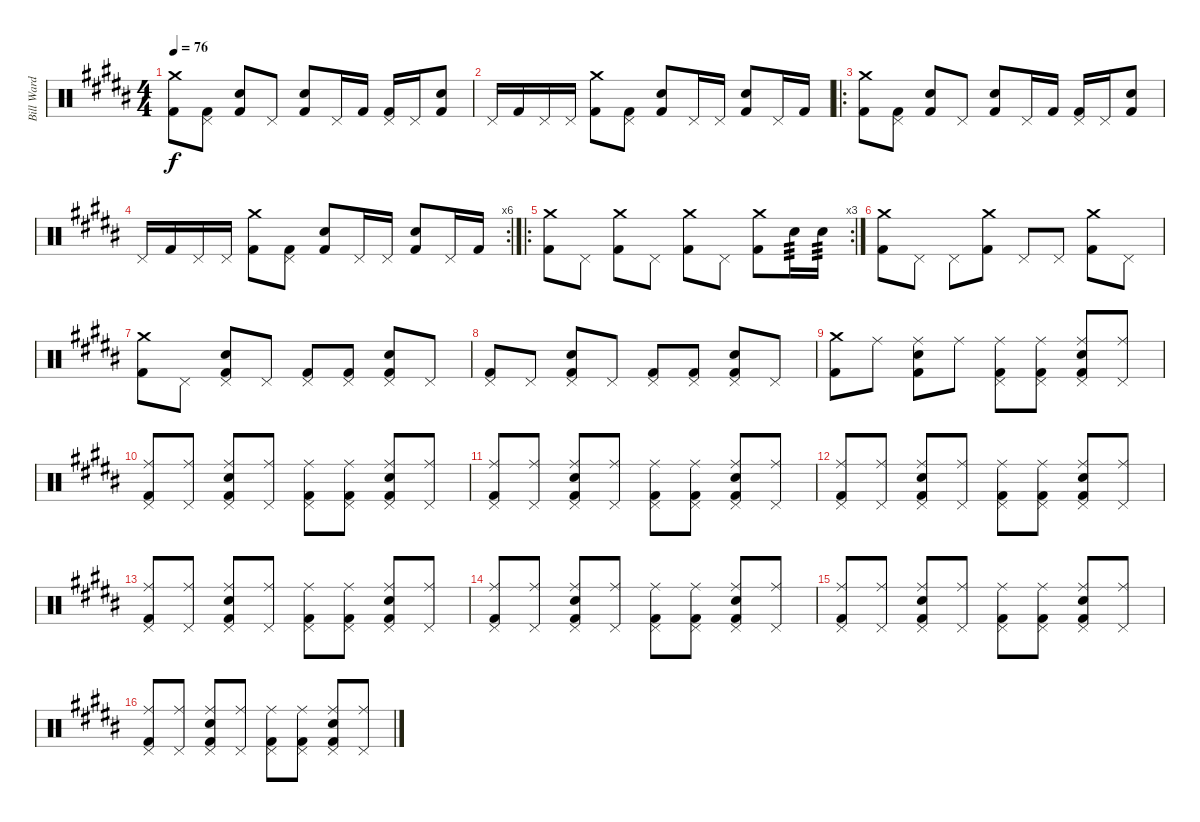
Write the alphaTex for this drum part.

\track ("Bill Ward" "Bill Ward") {instrument percussion}
\staff {score}
\articulation defaults
\ts (4 4)
\tempo 76
\clef neutral
\ks b
("Crash medium (hit)" "Kick (hit) 2").8{dy f} ("Pedal Hi-Hat (hit)" "Kick (hit) 2").8 ("Snare (hit) 2" "Kick (hit) 2").8 "Pedal Hi-Hat (hit)".8 ("Snare (hit) 2" "Kick (hit) 2").8 "Pedal Hi-Hat (hit)".16 "Kick (hit) 2".16 ("Pedal Hi-Hat (hit)" "Kick (hit) 2").16 "Pedal Hi-Hat (hit)".16 ("Snare (hit) 2" "Kick (hit) 2").8 |
"Pedal Hi-Hat (hit)".16 "Kick (hit) 2".16 "Pedal Hi-Hat (hit)".16 "Pedal Hi-Hat (hit)".16 ("Crash medium (hit)" "Kick (hit) 2").8 ("Pedal Hi-Hat (hit)" "Kick (hit) 2").8 ("Snare (hit) 2" "Kick (hit) 2").8 "Pedal Hi-Hat (hit)".16 "Pedal Hi-Hat (hit)".16 ("Snare (hit) 2" "Kick (hit) 2").8 "Pedal Hi-Hat (hit)".16 "Kick (hit) 2".16 |
\ro
("Crash medium (hit)" "Kick (hit) 2").8 ("Pedal Hi-Hat (hit)" "Kick (hit) 2").8 ("Snare (hit) 2" "Kick (hit) 2").8 "Pedal Hi-Hat (hit)".8 ("Snare (hit) 2" "Kick (hit) 2").8 "Pedal Hi-Hat (hit)".16 "Kick (hit) 2".16 ("Pedal Hi-Hat (hit)" "Kick (hit) 2").16 "Pedal Hi-Hat (hit)".16 ("Snare (hit) 2" "Kick (hit) 2").8 |
\rc 6 "Pedal Hi-Hat (hit)".16 "Kick (hit) 2".16 "Pedal Hi-Hat (hit)".16 "Pedal Hi-Hat (hit)".16
("Crash medium (hit)" "Kick (hit) 2").8 ("Pedal Hi-Hat (hit)" "Kick (hit) 2").8 ("Snare (hit) 2" "Kick (hit) 2").8 "Pedal Hi-Hat (hit)".16 "Pedal Hi-Hat (hit)".16 ("Snare (hit) 2" "Kick (hit) 2").8 "Pedal Hi-Hat (hit)".16 "Kick (hit) 2".16 |
\ro
\rc 3
("Crash medium (hit)" "Kick (hit) 2").8 "Pedal Hi-Hat (hit)".8 ("Crash medium (hit)" "Kick (hit) 2").8 "Pedal Hi-Hat (hit)".8 ("Crash medium (hit)" "Kick (hit) 2").8 "Pedal Hi-Hat (hit)".8 ("Crash medium (hit)" "Kick (hit) 2").8 "Snare (hit) 2".16{tp 3} "Snare (hit) 2".16{tp 3} |
("Crash medium (hit)" "Kick (hit) 2").8 "Pedal Hi-Hat (hit)".8 "Pedal Hi-Hat (hit)".8 ("Crash medium (hit)" "Kick (hit) 2").8 "Pedal Hi-Hat (hit)".8 "Pedal Hi-Hat (hit)".8 ("Crash medium (hit)" "Kick (hit) 2").8 "Pedal Hi-Hat (hit)".8 |
("Crash medium (hit)" "Kick (hit) 2").8 "Pedal Hi-Hat (hit)".8 ("Pedal Hi-Hat (hit)" "Snare (hit) 2" "Kick (hit) 2").8 "Pedal Hi-Hat (hit)".8 ("Pedal Hi-Hat (hit)" "Kick (hit) 2").8 ("Pedal Hi-Hat (hit)" "Kick (hit) 2").8 ("Pedal Hi-Hat (hit)" "Snare (hit) 2" "Kick (hit) 2").8 "Pedal Hi-Hat (hit)".8 |
("Pedal Hi-Hat (hit)" "Kick (hit) 2").8 "Pedal Hi-Hat (hit)".8 ("Pedal Hi-Hat (hit)" "Snare (hit) 2" "Kick (hit) 2").8 "Pedal Hi-Hat (hit)".8 ("Pedal Hi-Hat (hit)" "Kick (hit) 2").8 ("Pedal Hi-Hat (hit)" "Kick (hit) 2").8 ("Pedal Hi-Hat (hit)" "Snare (hit) 2" "Kick (hit) 2").8 "Pedal Hi-Hat (hit)".8 |
("Crash medium (hit)" "Kick (hit) 2").8 "Ride (middle)".8 ("Ride (middle)" "Snare (hit) 2" "Kick (hit) 2").8 "Ride (middle)".8 ("Ride (middle)" "Pedal Hi-Hat (hit)" "Kick (hit) 2").8 ("Ride (middle)" "Pedal Hi-Hat (hit)" "Kick (hit) 2").8 ("Ride (middle)" "Pedal Hi-Hat (hit)" "Snare (hit) 2" "Kick (hit) 2").8 ("Ride (middle)" "Pedal Hi-Hat (hit)").8 |
("Ride (middle)" "Pedal Hi-Hat (hit)" "Kick (hit) 2").8 ("Ride (middle)" "Pedal Hi-Hat (hit)").8 ("Ride (middle)" "Pedal Hi-Hat (hit)" "Snare (hit) 2" "Kick (hit) 2").8 ("Ride (middle)" "Pedal Hi-Hat (hit)").8 ("Ride (middle)" "Pedal Hi-Hat (hit)" "Kick (hit) 2").8 ("Ride (middle)" "Pedal Hi-Hat (hit)" "Kick (hit) 2").8 ("Ride (middle)" "Pedal Hi-Hat (hit)" "Snare (hit) 2" "Kick (hit) 2").8 ("Ride (middle)" "Pedal Hi-Hat (hit)").8 |
("Ride (middle)" "Pedal Hi-Hat (hit)" "Kick (hit) 2").8 ("Ride (middle)" "Pedal Hi-Hat (hit)").8 ("Ride (middle)" "Pedal Hi-Hat (hit)" "Snare (hit) 2" "Kick (hit) 2").8 ("Ride (middle)" "Pedal Hi-Hat (hit)").8 ("Ride (middle)" "Pedal Hi-Hat (hit)" "Kick (hit) 2").8 ("Ride (middle)" "Pedal Hi-Hat (hit)" "Kick (hit) 2").8 ("Ride (middle)" "Pedal Hi-Hat (hit)" "Snare (hit) 2" "Kick (hit) 2").8 ("Ride (middle)" "Pedal Hi-Hat (hit)").8 |
("Ride (middle)" "Pedal Hi-Hat (hit)" "Kick (hit) 2").8 ("Ride (middle)" "Pedal Hi-Hat (hit)").8 ("Ride (middle)" "Pedal Hi-Hat (hit)" "Snare (hit) 2" "Kick (hit) 2").8 ("Ride (middle)" "Pedal Hi-Hat (hit)").8 ("Ride (middle)" "Pedal Hi-Hat (hit)" "Kick (hit) 2").8 ("Ride (middle)" "Pedal Hi-Hat (hit)" "Kick (hit) 2").8 ("Ride (middle)" "Pedal Hi-Hat (hit)" "Snare (hit) 2" "Kick (hit) 2").8 ("Ride (middle)" "Pedal Hi-Hat (hit)").8 |
("Ride (middle)" "Pedal Hi-Hat (hit)" "Kick (hit) 2").8 ("Ride (middle)" "Pedal Hi-Hat (hit)").8 ("Ride (middle)" "Pedal Hi-Hat (hit)" "Snare (hit) 2" "Kick (hit) 2").8 ("Ride (middle)" "Pedal Hi-Hat (hit)").8 ("Ride (middle)" "Pedal Hi-Hat (hit)" "Kick (hit) 2").8 ("Ride (middle)" "Pedal Hi-Hat (hit)" "Kick (hit) 2").8 ("Ride (middle)" "Pedal Hi-Hat (hit)" "Snare (hit) 2" "Kick (hit) 2").8 ("Ride (middle)" "Pedal Hi-Hat (hit)").8 |
("Ride (middle)" "Pedal Hi-Hat (hit)" "Kick (hit) 2").8 ("Ride (middle)" "Pedal Hi-Hat (hit)").8 ("Ride (middle)" "Pedal Hi-Hat (hit)" "Snare (hit) 2" "Kick (hit) 2").8 ("Ride (middle)" "Pedal Hi-Hat (hit)").8 ("Ride (middle)" "Pedal Hi-Hat (hit)" "Kick (hit) 2").8 ("Ride (middle)" "Pedal Hi-Hat (hit)" "Kick (hit) 2").8 ("Ride (middle)" "Pedal Hi-Hat (hit)" "Snare (hit) 2" "Kick (hit) 2").8 ("Ride (middle)" "Pedal Hi-Hat (hit)").8 |
("Ride (middle)" "Pedal Hi-Hat (hit)" "Kick (hit) 2").8 ("Ride (middle)" "Pedal Hi-Hat (hit)").8 ("Ride (middle)" "Pedal Hi-Hat (hit)" "Snare (hit) 2" "Kick (hit) 2").8 ("Ride (middle)" "Pedal Hi-Hat (hit)").8 ("Ride (middle)" "Pedal Hi-Hat (hit)" "Kick (hit) 2").8 ("Ride (middle)" "Pedal Hi-Hat (hit)" "Kick (hit) 2").8 ("Ride (middle)" "Pedal Hi-Hat (hit)" "Snare (hit) 2" "Kick (hit) 2").8 ("Ride (middle)" "Pedal Hi-Hat (hit)").8 |
("Ride (middle)" "Pedal Hi-Hat (hit)" "Kick (hit) 2").8 ("Ride (middle)" "Pedal Hi-Hat (hit)").8 ("Ride (middle)" "Pedal Hi-Hat (hit)" "Snare (hit) 2" "Kick (hit) 2").8 ("Ride (middle)" "Pedal Hi-Hat (hit)").8 ("Ride (middle)" "Pedal Hi-Hat (hit)" "Kick (hit) 2").8 ("Ride (middle)" "Pedal Hi-Hat (hit)" "Kick (hit) 2").8 ("Ride (middle)" "Pedal Hi-Hat (hit)" "Snare (hit) 2" "Kick (hit) 2").8 ("Ride (middle)" "Pedal Hi-Hat (hit)").8
